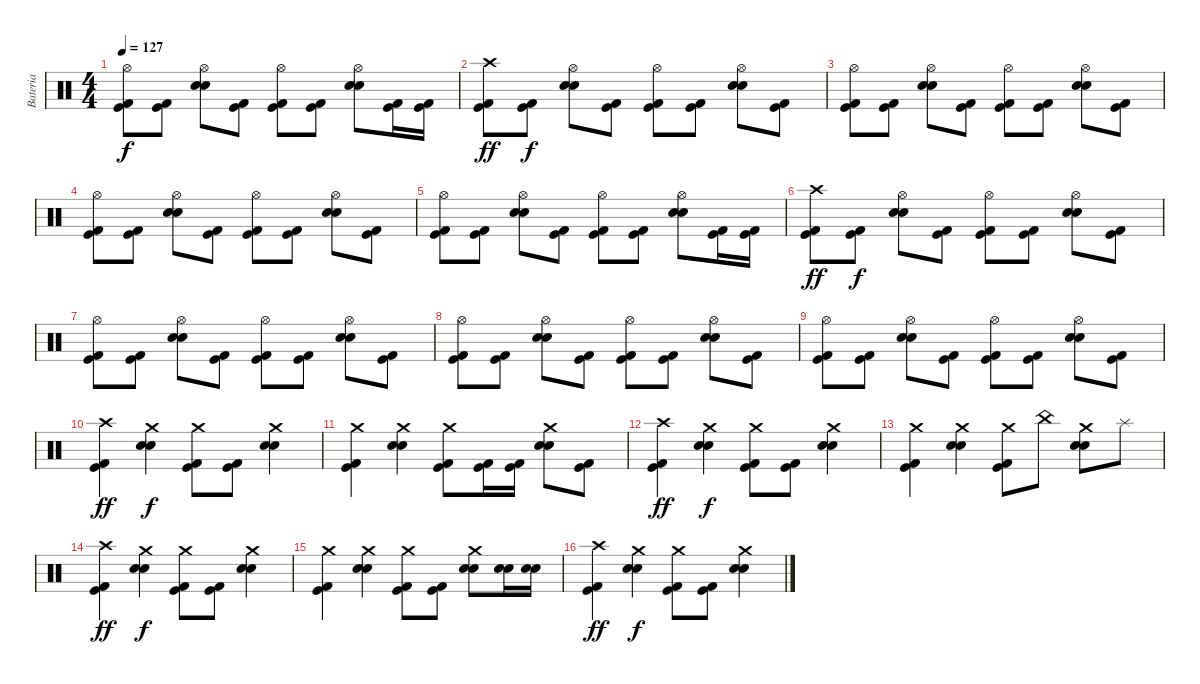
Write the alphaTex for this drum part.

\track ("Bateria" "Bateria") {instrument percussion}
\staff {score}
\articulation defaults
\ts (4 4)
\tempo 127
\clef neutral
\ks c
("Hi-Hat (open)" "Kick (hit) 2" "Kick (hit)").8{dy f} ("Kick (hit) 2" "Kick (hit)").8 ("Hi-Hat (open)" "Electric Snare (hit)" "Snare (hit) 2").8 ("Kick (hit) 2" "Kick (hit)").8 ("Hi-Hat (open)" "Kick (hit) 2" "Kick (hit)").8 ("Kick (hit) 2" "Kick (hit)").8 ("Hi-Hat (open)" "Electric Snare (hit)" "Snare (hit) 2").8 ("Kick (hit) 2" "Kick (hit)").16 ("Kick (hit) 2" "Kick (hit)").16 |
("Crash high (hit)" "Kick (hit) 2" "Kick (hit)").8{dy ff} ("Kick (hit) 2" "Kick (hit)").8{dy f} ("Hi-Hat (open)" "Electric Snare (hit)" "Snare (hit) 2").8 ("Kick (hit) 2" "Kick (hit)").8 ("Hi-Hat (open)" "Kick (hit) 2" "Kick (hit)").8 ("Kick (hit) 2" "Kick (hit)").8 ("Hi-Hat (open)" "Electric Snare (hit)" "Snare (hit) 2").8 ("Kick (hit) 2" "Kick (hit)").8 |
("Hi-Hat (open)" "Kick (hit) 2" "Kick (hit)").8 ("Kick (hit) 2" "Kick (hit)").8 ("Hi-Hat (open)" "Electric Snare (hit)" "Snare (hit) 2").8 ("Kick (hit) 2" "Kick (hit)").8 ("Hi-Hat (open)" "Kick (hit) 2" "Kick (hit)").8 ("Kick (hit) 2" "Kick (hit)").8 ("Hi-Hat (open)" "Electric Snare (hit)" "Snare (hit) 2").8 ("Kick (hit) 2" "Kick (hit)").8 |
("Hi-Hat (open)" "Kick (hit) 2" "Kick (hit)").8 ("Kick (hit) 2" "Kick (hit)").8 ("Hi-Hat (open)" "Electric Snare (hit)" "Snare (hit) 2").8 ("Kick (hit) 2" "Kick (hit)").8 ("Hi-Hat (open)" "Kick (hit) 2" "Kick (hit)").8 ("Kick (hit) 2" "Kick (hit)").8 ("Hi-Hat (open)" "Electric Snare (hit)" "Snare (hit) 2").8 ("Kick (hit) 2" "Kick (hit)").8 |
("Hi-Hat (open)" "Kick (hit) 2" "Kick (hit)").8 ("Kick (hit) 2" "Kick (hit)").8 ("Hi-Hat (open)" "Electric Snare (hit)" "Snare (hit) 2").8 ("Kick (hit) 2" "Kick (hit)").8 ("Hi-Hat (open)" "Kick (hit) 2" "Kick (hit)").8 ("Kick (hit) 2" "Kick (hit)").8 ("Hi-Hat (open)" "Electric Snare (hit)" "Snare (hit) 2").8 ("Kick (hit) 2" "Kick (hit)").16 ("Kick (hit) 2" "Kick (hit)").16 |
("Crash high (hit)" "Kick (hit) 2" "Kick (hit)").8{dy ff} ("Kick (hit) 2" "Kick (hit)").8{dy f} ("Hi-Hat (open)" "Electric Snare (hit)" "Snare (hit) 2").8 ("Kick (hit) 2" "Kick (hit)").8 ("Hi-Hat (open)" "Kick (hit) 2" "Kick (hit)").8 ("Kick (hit) 2" "Kick (hit)").8 ("Hi-Hat (open)" "Electric Snare (hit)" "Snare (hit) 2").8 ("Kick (hit) 2" "Kick (hit)").8 |
("Hi-Hat (open)" "Kick (hit) 2" "Kick (hit)").8 ("Kick (hit) 2" "Kick (hit)").8 ("Hi-Hat (open)" "Electric Snare (hit)" "Snare (hit) 2").8 ("Kick (hit) 2" "Kick (hit)").8 ("Hi-Hat (open)" "Kick (hit) 2" "Kick (hit)").8 ("Kick (hit) 2" "Kick (hit)").8 ("Hi-Hat (open)" "Electric Snare (hit)" "Snare (hit) 2").8 ("Kick (hit) 2" "Kick (hit)").8 |
("Hi-Hat (open)" "Kick (hit) 2" "Kick (hit)").8 ("Kick (hit) 2" "Kick (hit)").8 ("Hi-Hat (open)" "Electric Snare (hit)" "Snare (hit) 2").8 ("Kick (hit) 2" "Kick (hit)").8 ("Hi-Hat (open)" "Kick (hit) 2" "Kick (hit)").8 ("Kick (hit) 2" "Kick (hit)").8 ("Hi-Hat (open)" "Electric Snare (hit)" "Snare (hit) 2").8 ("Kick (hit) 2" "Kick (hit)").8 |
("Hi-Hat (open)" "Kick (hit) 2" "Kick (hit)").8 ("Kick (hit) 2" "Kick (hit)").8 ("Hi-Hat (open)" "Electric Snare (hit)" "Snare (hit) 2").8 ("Kick (hit) 2" "Kick (hit)").8 ("Hi-Hat (open)" "Kick (hit) 2" "Kick (hit)").8 ("Kick (hit) 2" "Kick (hit)").8 ("Hi-Hat (open)" "Electric Snare (hit)" "Snare (hit) 2").8 ("Kick (hit) 2" "Kick (hit)").8 |
("Crash high (hit)" "Kick (hit) 2" "Kick (hit)").4{dy ff} ("Crash medium (hit)" "Electric Snare (hit)" "Snare (hit) 2").4{dy f} ("Crash medium (hit)" "Kick (hit) 2" "Kick (hit)").8 ("Kick (hit) 2" "Kick (hit)").8 ("Crash medium (hit)" "Electric Snare (hit)" "Snare (hit) 2").4 |
("Crash medium (hit)" "Kick (hit) 2" "Kick (hit)").4 ("Crash medium (hit)" "Electric Snare (hit)" "Snare (hit) 2").4 ("Crash medium (hit)" "Kick (hit) 2" "Kick (hit)").8 ("Kick (hit) 2" "Kick (hit)").16 ("Kick (hit) 2" "Kick (hit)").16 ("Crash medium (hit)" "Electric Snare (hit)" "Snare (hit) 2").8 ("Kick (hit) 2" "Kick (hit)").8 |
("Crash high (hit)" "Kick (hit) 2" "Kick (hit)").4{dy ff} ("Crash medium (hit)" "Electric Snare (hit)" "Snare (hit) 2").4{dy f} ("Crash medium (hit)" "Kick (hit) 2" "Kick (hit)").8 ("Kick (hit) 2" "Kick (hit)").8 ("Crash medium (hit)" "Electric Snare (hit)" "Snare (hit) 2").4 |
("Crash medium (hit)" "Kick (hit) 2" "Kick (hit)").4 ("Crash medium (hit)" "Electric Snare (hit)" "Snare (hit) 2").4 ("Crash medium (hit)" "Kick (hit) 2" "Kick (hit)").8 "China (hit)".8 ("Crash medium (hit)" "Electric Snare (hit)" "Snare (hit) 2").8 "Splash (hit)".8 |
("Crash high (hit)" "Kick (hit) 2" "Kick (hit)").4{dy ff} ("Crash medium (hit)" "Electric Snare (hit)" "Snare (hit) 2").4{dy f} ("Crash medium (hit)" "Kick (hit) 2" "Kick (hit)").8 ("Kick (hit) 2" "Kick (hit)").8 ("Crash medium (hit)" "Electric Snare (hit)" "Snare (hit) 2").4 |
("Crash medium (hit)" "Kick (hit) 2" "Kick (hit)").4 ("Crash medium (hit)" "Electric Snare (hit)" "Snare (hit) 2").4 ("Crash medium (hit)" "Kick (hit) 2" "Kick (hit)").8 ("Kick (hit) 2" "Kick (hit)").8 ("Crash medium (hit)" "Electric Snare (hit)" "Snare (hit) 2").8 ("Electric Snare (hit)" "Snare (hit) 2").16 ("Electric Snare (hit)" "Snare (hit) 2").16 |
("Crash high (hit)" "Kick (hit) 2" "Kick (hit)").4{dy ff} ("Crash medium (hit)" "Electric Snare (hit)" "Snare (hit) 2").4{dy f} ("Crash medium (hit)" "Kick (hit) 2" "Kick (hit)").8 ("Kick (hit) 2" "Kick (hit)").8 ("Crash medium (hit)" "Electric Snare (hit)" "Snare (hit) 2").4
